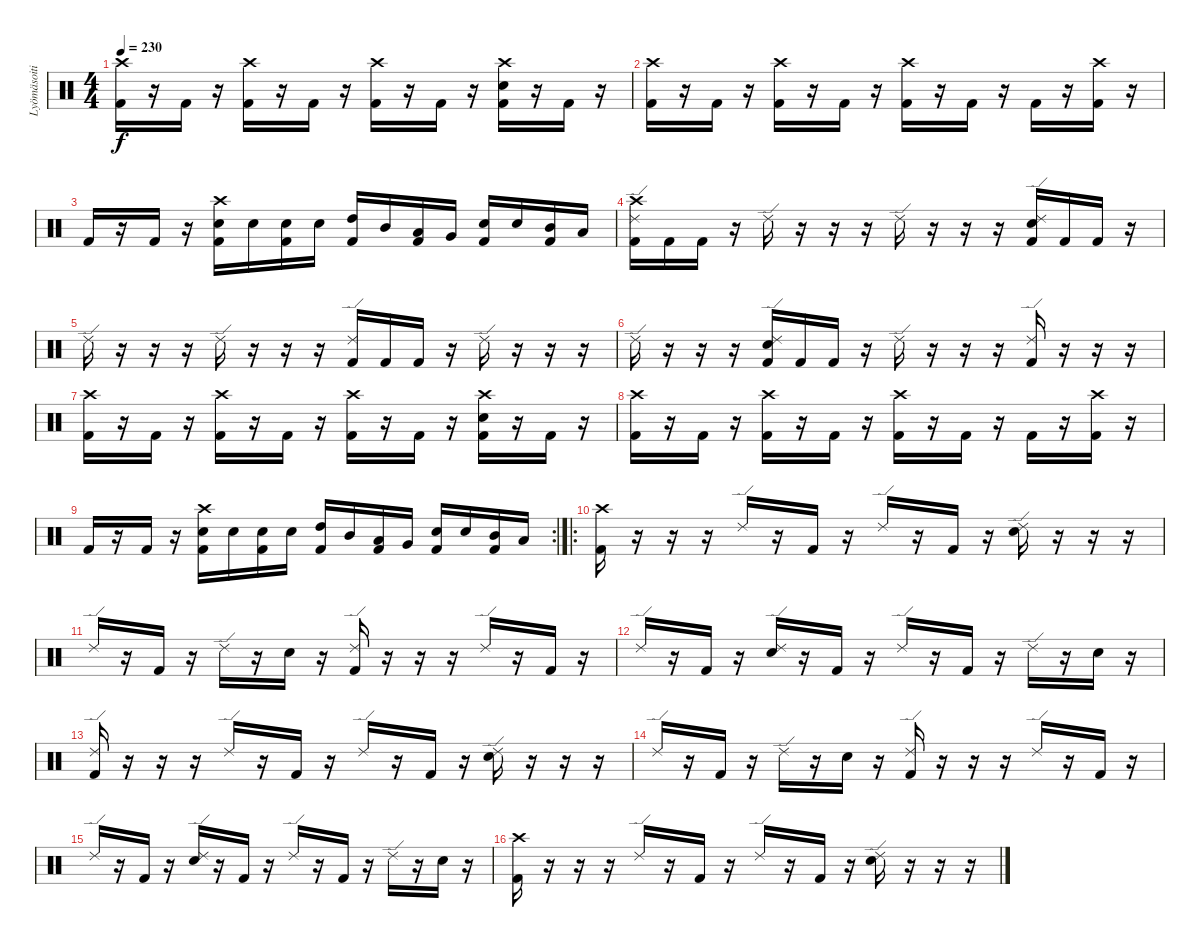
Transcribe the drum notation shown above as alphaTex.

\track ("Lyömäsoitin" "Lyömäsoiti") {instrument percussion}
\staff {score}
\articulation defaults
\ts (4 4)
\tempo 230
\clef neutral
\ks c
("Crash high (hit)" "Kick (hit) 2").16{dy f} r.16 "Kick (hit) 2".16 r.16 ("Crash high (hit)" "Kick (hit) 2").16 r.16 "Kick (hit) 2".16 r.16 ("Crash high (hit)" "Kick (hit) 2").16 r.16 "Kick (hit) 2".16 r.16 ("Crash high (hit)" "Snare (hit) 2" "Kick (hit) 2").16 r.16 "Kick (hit) 2".16 r.16 |
("Crash high (hit)" "Kick (hit) 2").16 r.16 "Kick (hit) 2".16 r.16 ("Crash high (hit)" "Kick (hit) 2").16 r.16 "Kick (hit) 2".16 r.16 ("Crash high (hit)" "Kick (hit) 2").16 r.16 "Kick (hit) 2".16 r.16 "Kick (hit) 2".16 r.16 ("Crash high (hit)" "Kick (hit) 2").16 r.16 |
"Kick (hit) 2".16 r.16 "Kick (hit) 2".16 r.16 ("Crash high (hit)" "Snare (hit) 2" "Kick (hit) 2").16 "Snare (hit) 2".16 ("Snare (hit) 2" "Kick (hit) 2").16 "Snare (hit) 2".16 ("High Tom (hit)" "Kick (hit) 2").16 "Mid Tom (hit)".16 ("Low Tom (hit)" "Kick (hit) 2").16 "Very Low Tom (hit)".16 ("Snare (hit) 2" "Kick (hit) 2").16 "Snare (hit) 2".16 ("Mid Tom (hit)" "Kick (hit) 2").16 "Low Floor Tom (hit)".16 |
("Crash high (hit)" "Ride (edge) 2" "Kick (hit) 2").16 "Kick (hit) 2".16 "Kick (hit) 2".16 r.16 "Ride (edge) 2".16 r.16 r.16 r.16 "Ride (edge) 2".16 r.16 r.16 r.16 ("Ride (edge) 2" "Snare (hit) 2" "Kick (hit) 2").16 "Kick (hit) 2".16 "Kick (hit) 2".16 r.16 |
"Ride (edge) 2".16 r.16 r.16 r.16 "Ride (edge) 2".16 r.16 r.16 r.16 ("Ride (edge) 2" "Kick (hit) 2").16 "Kick (hit) 2".16 "Kick (hit) 2".16 r.16 "Ride (edge) 2".16 r.16 r.16 r.16 |
"Ride (edge) 2".16 r.16 r.16 r.16 ("Ride (edge) 2" "Snare (hit) 2" "Kick (hit) 2").16 "Kick (hit) 2".16 "Kick (hit) 2".16 r.16 "Ride (edge) 2".16 r.16 r.16 r.16 ("Ride (edge) 2" "Kick (hit) 2").16 r.16 r.16 r.16 |
("Crash high (hit)" "Kick (hit) 2").16 r.16 "Kick (hit) 2".16 r.16 ("Crash high (hit)" "Kick (hit) 2").16 r.16 "Kick (hit) 2".16 r.16 ("Crash high (hit)" "Kick (hit) 2").16 r.16 "Kick (hit) 2".16 r.16 ("Crash high (hit)" "Snare (hit) 2" "Kick (hit) 2").16 r.16 "Kick (hit) 2".16 r.16 |
("Crash high (hit)" "Kick (hit) 2").16 r.16 "Kick (hit) 2".16 r.16 ("Crash high (hit)" "Kick (hit) 2").16 r.16 "Kick (hit) 2".16 r.16 ("Crash high (hit)" "Kick (hit) 2").16 r.16 "Kick (hit) 2".16 r.16 "Kick (hit) 2".16 r.16 ("Crash high (hit)" "Kick (hit) 2").16 r.16 |
\rc 2 "Kick (hit) 2".16
r.16 "Kick (hit) 2".16 r.16 ("Crash high (hit)" "Snare (hit) 2" "Kick (hit) 2").16 "Snare (hit) 2".16 ("Snare (hit) 2" "Kick (hit) 2").16 "Snare (hit) 2".16 ("High Tom (hit)" "Kick (hit) 2").16 "Mid Tom (hit)".16 ("Low Tom (hit)" "Kick (hit) 2").16 "Very Low Tom (hit)".16 ("Snare (hit) 2" "Kick (hit) 2").16 "Snare (hit) 2".16 ("Mid Tom (hit)" "Kick (hit) 2").16 "Low Floor Tom (hit)".16 |
\ro
("Crash high (hit)" "Kick (hit) 2").16 r.16 r.16 r.16 "Ride (edge) 2".16 r.16 "Kick (hit) 2".16 r.16 "Ride (edge) 2".16 r.16 "Kick (hit) 2".16 r.16 ("Ride (edge) 2" "Snare (hit) 2").16 r.16 r.16 r.16 |
"Ride (edge) 2".16 r.16 "Kick (hit) 2".16 r.16 "Ride (edge) 2".16 r.16 "Snare (hit) 2".16 r.16 ("Ride (edge) 2" "Kick (hit) 2").16 r.16 r.16 r.16 "Ride (edge) 2".16 r.16 "Kick (hit) 2".16 r.16 |
"Ride (edge) 2".16 r.16 "Kick (hit) 2".16 r.16 ("Ride (edge) 2" "Snare (hit) 2").16 r.16 "Kick (hit) 2".16 r.16 "Ride (edge) 2".16 r.16 "Kick (hit) 2".16 r.16 "Ride (edge) 2".16 r.16 "Snare (hit) 2".16 r.16 |
("Ride (edge) 2" "Kick (hit) 2").16 r.16 r.16 r.16 "Ride (edge) 2".16 r.16 "Kick (hit) 2".16 r.16 "Ride (edge) 2".16 r.16 "Kick (hit) 2".16 r.16 ("Ride (edge) 2" "Snare (hit) 2").16 r.16 r.16 r.16 |
"Ride (edge) 2".16 r.16 "Kick (hit) 2".16 r.16 "Ride (edge) 2".16 r.16 "Snare (hit) 2".16 r.16 ("Ride (edge) 2" "Kick (hit) 2").16 r.16 r.16 r.16 "Ride (edge) 2".16 r.16 "Kick (hit) 2".16 r.16 |
"Ride (edge) 2".16 r.16 "Kick (hit) 2".16 r.16 ("Ride (edge) 2" "Snare (hit) 2").16 r.16 "Kick (hit) 2".16 r.16 "Ride (edge) 2".16 r.16 "Kick (hit) 2".16 r.16 "Ride (edge) 2".16 r.16 "Snare (hit) 2".16 r.16 |
("Crash high (hit)" "Kick (hit) 2").16 r.16 r.16 r.16 "Ride (edge) 2".16 r.16 "Kick (hit) 2".16 r.16 "Ride (edge) 2".16 r.16 "Kick (hit) 2".16 r.16 ("Ride (edge) 2" "Snare (hit) 2").16 r.16 r.16 r.16
